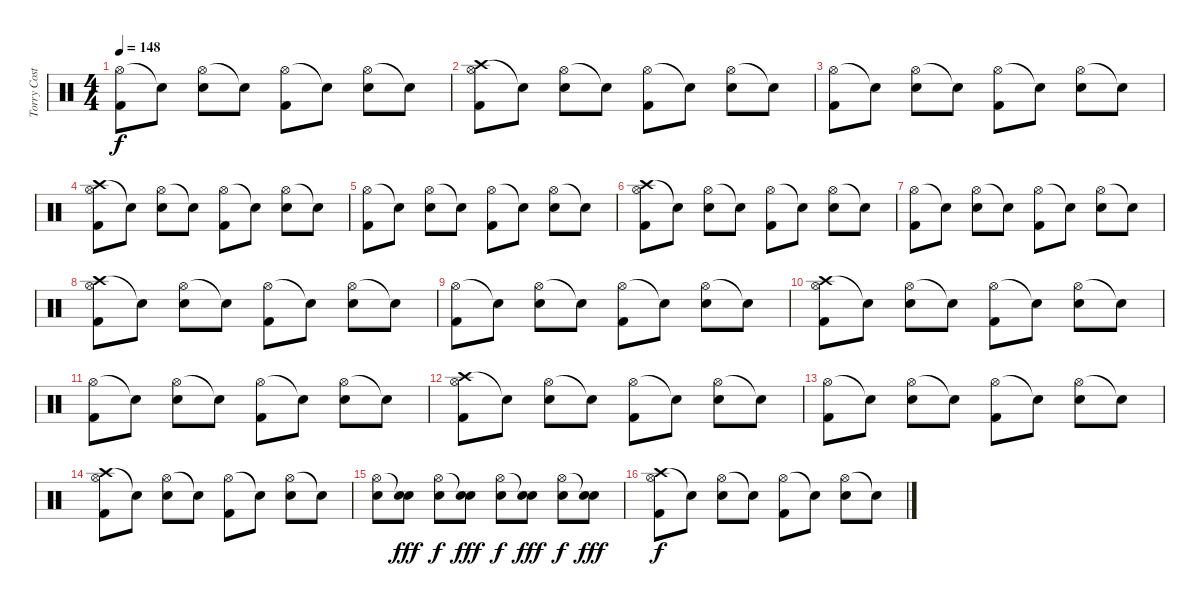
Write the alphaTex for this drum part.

\track ("Torry Costellano" "Torry Cost") {instrument percussion bank 127}
\staff {score}
\articulation defaults
\ts (4 4)
\tempo 148
\clef neutral
\ks c
("Hi-Hat (open)" "Kick (hit) 2").8{dy f} "Snare (hit)"{t}.8 ("Hi-Hat (open)" "Electric Snare (hit)").8 "Snare (hit)"{t}.8 ("Hi-Hat (open)" "Kick (hit) 2").8 "Snare (hit)"{t}.8 ("Hi-Hat (open)" "Electric Snare (hit)").8 "Snare (hit)"{t}.8 |
("Crash high (hit)" "Hi-Hat (open)" "Kick (hit) 2").8 "Snare (hit)"{t}.8 ("Hi-Hat (open)" "Electric Snare (hit)").8 "Snare (hit)"{t}.8 ("Hi-Hat (open)" "Kick (hit) 2").8 "Snare (hit)"{t}.8 ("Hi-Hat (open)" "Electric Snare (hit)").8 "Snare (hit)"{t}.8 |
("Hi-Hat (open)" "Kick (hit) 2").8 "Snare (hit)"{t}.8 ("Hi-Hat (open)" "Electric Snare (hit)").8 "Snare (hit)"{t}.8 ("Hi-Hat (open)" "Kick (hit) 2").8 "Snare (hit)"{t}.8 ("Hi-Hat (open)" "Electric Snare (hit)").8 "Snare (hit)"{t}.8 |
("Crash high (hit)" "Hi-Hat (open)" "Kick (hit) 2").8 "Snare (hit)"{t}.8 ("Hi-Hat (open)" "Electric Snare (hit)").8 "Snare (hit)"{t}.8 ("Hi-Hat (open)" "Kick (hit) 2").8 "Snare (hit)"{t}.8 ("Hi-Hat (open)" "Electric Snare (hit)").8 "Snare (hit)"{t}.8 |
("Hi-Hat (open)" "Kick (hit) 2").8 "Snare (hit)"{t}.8 ("Hi-Hat (open)" "Electric Snare (hit)").8 "Snare (hit)"{t}.8 ("Hi-Hat (open)" "Kick (hit) 2").8 "Snare (hit)"{t}.8 ("Hi-Hat (open)" "Electric Snare (hit)").8 "Snare (hit)"{t}.8 |
("Crash high (hit)" "Hi-Hat (open)" "Kick (hit) 2").8 "Snare (hit)"{t}.8 ("Hi-Hat (open)" "Electric Snare (hit)").8 "Snare (hit)"{t}.8 ("Hi-Hat (open)" "Kick (hit) 2").8 "Snare (hit)"{t}.8 ("Hi-Hat (open)" "Electric Snare (hit)").8 "Snare (hit)"{t}.8 |
("Hi-Hat (open)" "Kick (hit) 2").8 "Snare (hit)"{t}.8 ("Hi-Hat (open)" "Electric Snare (hit)").8 "Snare (hit)"{t}.8 ("Hi-Hat (open)" "Kick (hit) 2").8 "Snare (hit)"{t}.8 ("Hi-Hat (open)" "Electric Snare (hit)").8 "Snare (hit)"{t}.8 |
("Crash high (hit)" "Hi-Hat (open)" "Kick (hit) 2").8 "Snare (hit)"{t}.8 ("Hi-Hat (open)" "Electric Snare (hit)").8 "Snare (hit)"{t}.8 ("Hi-Hat (open)" "Kick (hit) 2").8 "Snare (hit)"{t}.8 ("Hi-Hat (open)" "Electric Snare (hit)").8 "Snare (hit)"{t}.8 |
("Hi-Hat (open)" "Kick (hit) 2").8 "Snare (hit)"{t}.8 ("Hi-Hat (open)" "Electric Snare (hit)").8 "Snare (hit)"{t}.8 ("Hi-Hat (open)" "Kick (hit) 2").8 "Snare (hit)"{t}.8 ("Hi-Hat (open)" "Electric Snare (hit)").8 "Snare (hit)"{t}.8 |
("Crash high (hit)" "Hi-Hat (open)" "Kick (hit) 2").8 "Snare (hit)"{t}.8 ("Hi-Hat (open)" "Electric Snare (hit)").8 "Snare (hit)"{t}.8 ("Hi-Hat (open)" "Kick (hit) 2").8 "Snare (hit)"{t}.8 ("Hi-Hat (open)" "Electric Snare (hit)").8 "Snare (hit)"{t}.8 |
("Hi-Hat (open)" "Kick (hit) 2").8 "Snare (hit)"{t}.8 ("Hi-Hat (open)" "Electric Snare (hit)").8 "Snare (hit)"{t}.8 ("Hi-Hat (open)" "Kick (hit) 2").8 "Snare (hit)"{t}.8 ("Hi-Hat (open)" "Electric Snare (hit)").8 "Snare (hit)"{t}.8 |
("Crash high (hit)" "Hi-Hat (open)" "Kick (hit) 2").8 "Snare (hit)"{t}.8 ("Hi-Hat (open)" "Electric Snare (hit)").8 "Snare (hit)"{t}.8 ("Hi-Hat (open)" "Kick (hit) 2").8 "Snare (hit)"{t}.8 ("Hi-Hat (open)" "Electric Snare (hit)").8 "Snare (hit)"{t}.8 |
("Hi-Hat (open)" "Kick (hit) 2").8 "Snare (hit)"{t}.8 ("Hi-Hat (open)" "Electric Snare (hit)").8 "Snare (hit)"{t}.8 ("Hi-Hat (open)" "Kick (hit) 2").8 "Snare (hit)"{t}.8 ("Hi-Hat (open)" "Electric Snare (hit)").8 "Snare (hit)"{t}.8 |
("Crash high (hit)" "Hi-Hat (open)" "Kick (hit) 2").8 "Snare (hit)"{t}.8 ("Hi-Hat (open)" "Electric Snare (hit)").8 "Snare (hit)"{t}.8 ("Hi-Hat (open)" "Kick (hit) 2").8 "Snare (hit)"{t}.8 ("Hi-Hat (open)" "Electric Snare (hit)").8 "Snare (hit)"{t}.8 |
("Hi-Hat (open)" "Electric Snare (hit)").8 ("Snare (hit)"{t} "Electric Snare (hit)").8{dy fff} ("Hi-Hat (open)" "Electric Snare (hit)").8{dy f} ("Snare (hit)"{t} "Electric Snare (hit)").8{dy fff} ("Hi-Hat (open)" "Electric Snare (hit)").8{dy f} ("Snare (hit)"{t} "Electric Snare (hit)").8{dy fff} ("Hi-Hat (open)" "Electric Snare (hit)").8{dy f} ("Snare (hit)"{t} "Electric Snare (hit)").8{dy fff} |
("Crash high (hit)" "Hi-Hat (open)" "Kick (hit) 2").8{dy f} "Snare (hit)"{t}.8 ("Hi-Hat (open)" "Electric Snare (hit)").8 "Snare (hit)"{t}.8 ("Hi-Hat (open)" "Kick (hit) 2").8 "Snare (hit)"{t}.8 ("Hi-Hat (open)" "Electric Snare (hit)").8 "Snare (hit)"{t}.8
